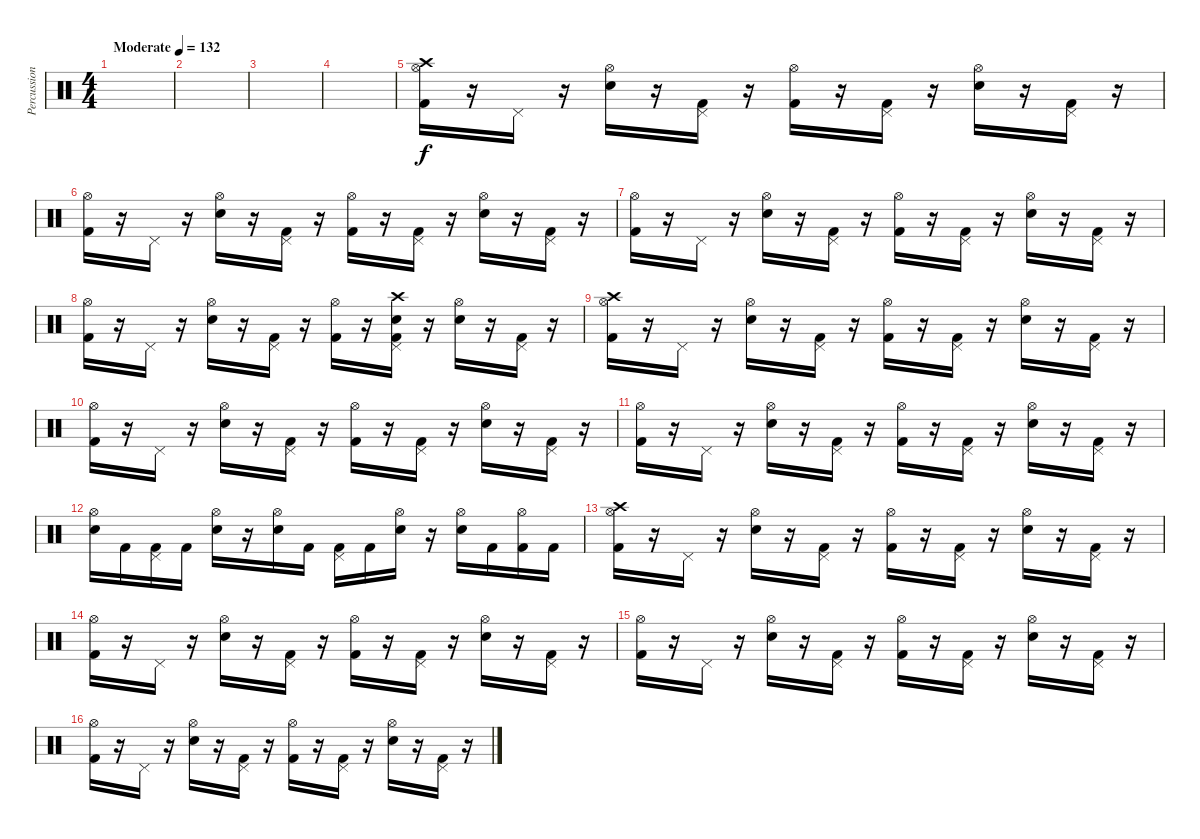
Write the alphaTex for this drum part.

\track ("Percussion" "Percussion") {instrument percussion}
\staff {score}
\articulation defaults
\ts (4 4)
\tempo (132 "Moderate")
\clef neutral
\ks c
|
|
|
|
("Kick (hit) 2" "Crash high (hit)" "Hi-Hat (open)").16 r.16 "Pedal Hi-Hat (hit)".16 r.16 ("Snare (hit) 2" "Hi-Hat (open)").16 r.16 ("Kick (hit) 2" "Pedal Hi-Hat (hit)").16 r.16 ("Kick (hit) 2" "Hi-Hat (open)").16 r.16 ("Kick (hit) 2" "Pedal Hi-Hat (hit)").16 r.16 ("Snare (hit) 2" "Hi-Hat (open)").16 r.16 ("Kick (hit) 2" "Pedal Hi-Hat (hit)").16 r.16 |
("Kick (hit) 2" "Hi-Hat (open)").16 r.16 "Pedal Hi-Hat (hit)".16 r.16 ("Snare (hit) 2" "Hi-Hat (open)").16 r.16 ("Kick (hit) 2" "Pedal Hi-Hat (hit)").16 r.16 ("Kick (hit) 2" "Hi-Hat (open)").16 r.16 ("Kick (hit) 2" "Pedal Hi-Hat (hit)").16 r.16 ("Snare (hit) 2" "Hi-Hat (open)").16 r.16 ("Kick (hit) 2" "Pedal Hi-Hat (hit)").16 r.16 |
("Kick (hit) 2" "Hi-Hat (open)").16 r.16 "Pedal Hi-Hat (hit)".16 r.16 ("Snare (hit) 2" "Hi-Hat (open)").16 r.16 ("Kick (hit) 2" "Pedal Hi-Hat (hit)").16 r.16 ("Kick (hit) 2" "Hi-Hat (open)").16 r.16 ("Kick (hit) 2" "Pedal Hi-Hat (hit)").16 r.16 ("Snare (hit) 2" "Hi-Hat (open)").16 r.16 ("Kick (hit) 2" "Pedal Hi-Hat (hit)").16 r.16 |
("Kick (hit) 2" "Hi-Hat (open)").16 r.16 "Pedal Hi-Hat (hit)".16 r.16 ("Snare (hit) 2" "Hi-Hat (open)").16 r.16 ("Kick (hit) 2" "Pedal Hi-Hat (hit)").16 r.16 ("Kick (hit) 2" "Hi-Hat (open)").16 r.16 ("Kick (hit) 2" "Pedal Hi-Hat (hit)" "Electric Snare (hit)" "Crash high (hit)").16 r.16 ("Snare (hit) 2" "Hi-Hat (open)").16 r.16 ("Kick (hit) 2" "Pedal Hi-Hat (hit)").16 r.16 |
("Kick (hit) 2" "Crash high (hit)" "Hi-Hat (open)").16 r.16 "Pedal Hi-Hat (hit)".16 r.16 ("Snare (hit) 2" "Hi-Hat (open)").16 r.16 ("Kick (hit) 2" "Pedal Hi-Hat (hit)").16 r.16 ("Kick (hit) 2" "Hi-Hat (open)").16 r.16 ("Kick (hit) 2" "Pedal Hi-Hat (hit)").16 r.16 ("Snare (hit) 2" "Hi-Hat (open)").16 r.16 ("Kick (hit) 2" "Pedal Hi-Hat (hit)").16 r.16 |
("Kick (hit) 2" "Hi-Hat (open)").16 r.16 "Pedal Hi-Hat (hit)".16 r.16 ("Snare (hit) 2" "Hi-Hat (open)").16 r.16 ("Kick (hit) 2" "Pedal Hi-Hat (hit)").16 r.16 ("Kick (hit) 2" "Hi-Hat (open)").16 r.16 ("Kick (hit) 2" "Pedal Hi-Hat (hit)").16 r.16 ("Snare (hit) 2" "Hi-Hat (open)").16 r.16 ("Kick (hit) 2" "Pedal Hi-Hat (hit)").16 r.16 |
("Kick (hit) 2" "Hi-Hat (open)").16 r.16 "Pedal Hi-Hat (hit)".16 r.16 ("Snare (hit) 2" "Hi-Hat (open)").16 r.16 ("Kick (hit) 2" "Pedal Hi-Hat (hit)").16 r.16 ("Kick (hit) 2" "Hi-Hat (open)").16 r.16 ("Kick (hit) 2" "Pedal Hi-Hat (hit)").16 r.16 ("Snare (hit) 2" "Hi-Hat (open)").16 r.16 ("Kick (hit) 2" "Pedal Hi-Hat (hit)").16 r.16 |
("Hi-Hat (open)" "Snare (hit) 2").16 "Kick (hit) 2".16 ("Pedal Hi-Hat (hit)" "Kick (hit) 2").16 "Kick (hit) 2".16 ("Snare (hit) 2" "Hi-Hat (open)").16 r.16 ("Hi-Hat (open)" "Snare (hit) 2").16 "Kick (hit) 2".16 ("Kick (hit) 2" "Pedal Hi-Hat (hit)").16 "Kick (hit) 2".16 ("Hi-Hat (open)" "Snare (hit) 2").16 r.16 ("Snare (hit) 2" "Hi-Hat (open)").16 "Kick (hit) 2".16 ("Kick (hit) 2" "Hi-Hat (open)").16 "Kick (hit) 2".16 |
("Kick (hit) 2" "Crash high (hit)" "Hi-Hat (open)").16 r.16 "Pedal Hi-Hat (hit)".16 r.16 ("Snare (hit) 2" "Hi-Hat (open)").16 r.16 ("Kick (hit) 2" "Pedal Hi-Hat (hit)").16 r.16 ("Kick (hit) 2" "Hi-Hat (open)").16 r.16 ("Kick (hit) 2" "Pedal Hi-Hat (hit)").16 r.16 ("Snare (hit) 2" "Hi-Hat (open)").16 r.16 ("Kick (hit) 2" "Pedal Hi-Hat (hit)").16 r.16 |
("Kick (hit) 2" "Hi-Hat (open)").16 r.16 "Pedal Hi-Hat (hit)".16 r.16 ("Snare (hit) 2" "Hi-Hat (open)").16 r.16 ("Kick (hit) 2" "Pedal Hi-Hat (hit)").16 r.16 ("Kick (hit) 2" "Hi-Hat (open)").16 r.16 ("Kick (hit) 2" "Pedal Hi-Hat (hit)").16 r.16 ("Snare (hit) 2" "Hi-Hat (open)").16 r.16 ("Kick (hit) 2" "Pedal Hi-Hat (hit)").16 r.16 |
("Kick (hit) 2" "Hi-Hat (open)").16 r.16 "Pedal Hi-Hat (hit)".16 r.16 ("Snare (hit) 2" "Hi-Hat (open)").16 r.16 ("Kick (hit) 2" "Pedal Hi-Hat (hit)").16 r.16 ("Kick (hit) 2" "Hi-Hat (open)").16 r.16 ("Kick (hit) 2" "Pedal Hi-Hat (hit)").16 r.16 ("Snare (hit) 2" "Hi-Hat (open)").16 r.16 ("Kick (hit) 2" "Pedal Hi-Hat (hit)").16 r.16 |
("Kick (hit) 2" "Hi-Hat (open)").16 r.16 "Pedal Hi-Hat (hit)".16 r.16 ("Snare (hit) 2" "Hi-Hat (open)").16 r.16 ("Kick (hit) 2" "Pedal Hi-Hat (hit)").16 r.16 ("Kick (hit) 2" "Hi-Hat (open)").16 r.16 ("Kick (hit) 2" "Pedal Hi-Hat (hit)").16 r.16 ("Snare (hit) 2" "Hi-Hat (open)").16 r.16 ("Kick (hit) 2" "Pedal Hi-Hat (hit)").16 r.16
